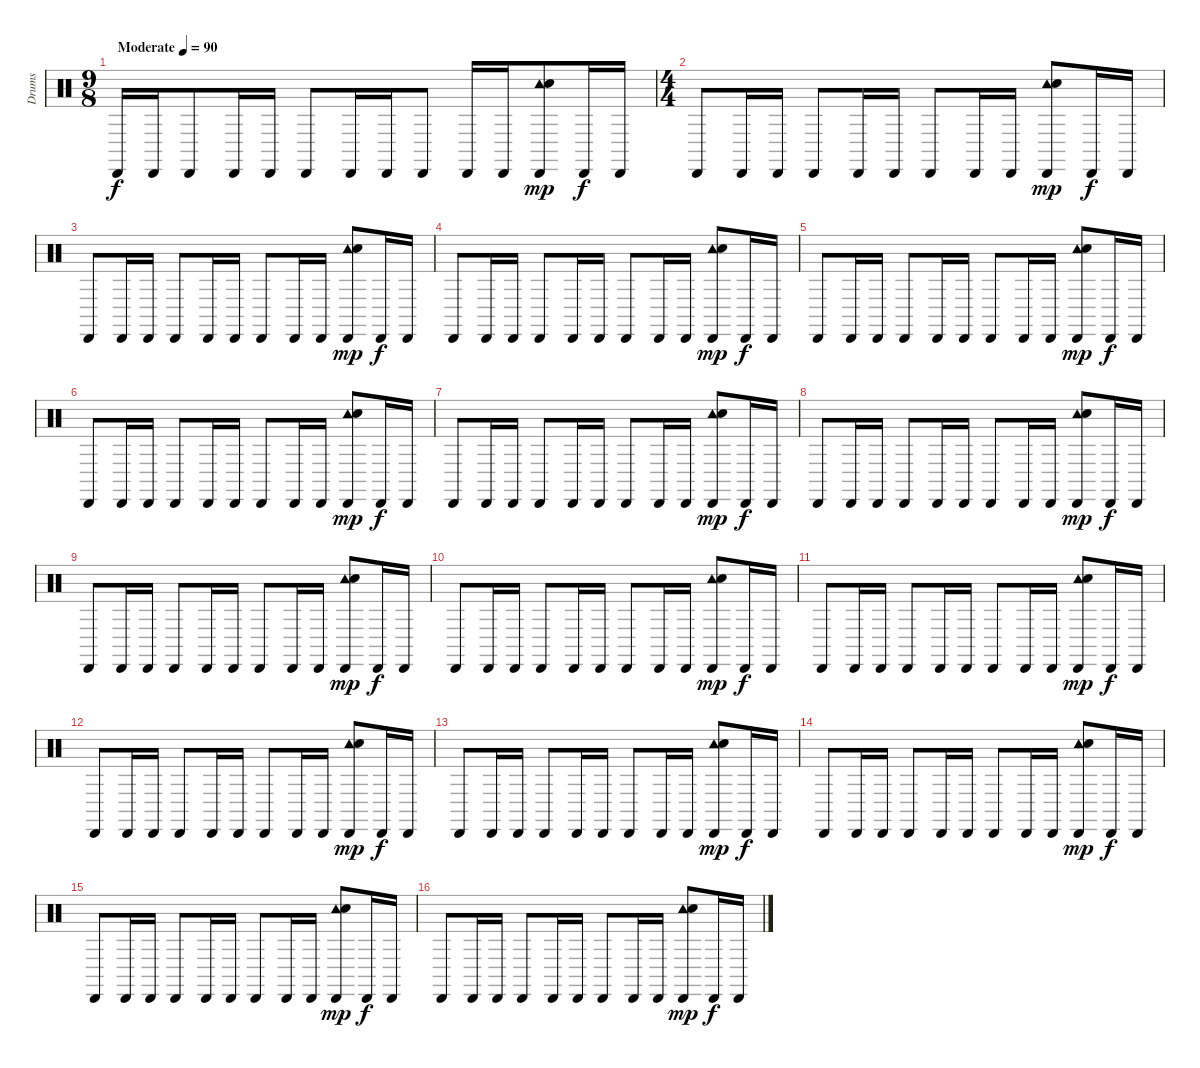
\track ("Drums" "Drums") {instrument percussion}
\staff {score}
\articulation defaults
\ts (9 8)
\tempo (90 "Moderate")
\clef neutral
\ks c "Cabasa (hit)".16{dy f} "Cabasa (hit)".16 "Cabasa (hit)".8 "Cabasa (hit)".16 "Cabasa (hit)".16 "Cabasa (hit)".8 "Cabasa (hit)".16 "Cabasa (hit)".16 "Cabasa (hit)".8 "Cabasa (hit)".16 "Cabasa (hit)".16
("Tambourine (hit)" "Cabasa (hit)" "Electric Snare (hit)").8{dy mp} "Cabasa (hit)".16{dy f} "Cabasa (hit)".16 |
\ts (4 4)
"Cabasa (hit)".8 "Cabasa (hit)".16 "Cabasa (hit)".16 "Cabasa (hit)".8 "Cabasa (hit)".16 "Cabasa (hit)".16 "Cabasa (hit)".8 "Cabasa (hit)".16 "Cabasa (hit)".16 ("Tambourine (hit)" "Cabasa (hit)" "Electric Snare (hit)").8{dy mp} "Cabasa (hit)".16{dy f} "Cabasa (hit)".16 |
"Cabasa (hit)".8 "Cabasa (hit)".16 "Cabasa (hit)".16 "Cabasa (hit)".8 "Cabasa (hit)".16 "Cabasa (hit)".16 "Cabasa (hit)".8 "Cabasa (hit)".16 "Cabasa (hit)".16 ("Tambourine (hit)" "Cabasa (hit)" "Electric Snare (hit)").8{dy mp} "Cabasa (hit)".16{dy f} "Cabasa (hit)".16 |
"Cabasa (hit)".8 "Cabasa (hit)".16 "Cabasa (hit)".16 "Cabasa (hit)".8 "Cabasa (hit)".16 "Cabasa (hit)".16 "Cabasa (hit)".8 "Cabasa (hit)".16 "Cabasa (hit)".16 ("Tambourine (hit)" "Cabasa (hit)" "Electric Snare (hit)").8{dy mp} "Cabasa (hit)".16{dy f} "Cabasa (hit)".16 |
"Cabasa (hit)".8 "Cabasa (hit)".16 "Cabasa (hit)".16 "Cabasa (hit)".8 "Cabasa (hit)".16 "Cabasa (hit)".16 "Cabasa (hit)".8 "Cabasa (hit)".16 "Cabasa (hit)".16 ("Tambourine (hit)" "Cabasa (hit)" "Electric Snare (hit)").8{dy mp} "Cabasa (hit)".16{dy f} "Cabasa (hit)".16 |
"Cabasa (hit)".8 "Cabasa (hit)".16 "Cabasa (hit)".16 "Cabasa (hit)".8 "Cabasa (hit)".16 "Cabasa (hit)".16 "Cabasa (hit)".8 "Cabasa (hit)".16 "Cabasa (hit)".16 ("Tambourine (hit)" "Cabasa (hit)" "Electric Snare (hit)").8{dy mp} "Cabasa (hit)".16{dy f} "Cabasa (hit)".16 |
"Cabasa (hit)".8 "Cabasa (hit)".16 "Cabasa (hit)".16 "Cabasa (hit)".8 "Cabasa (hit)".16 "Cabasa (hit)".16 "Cabasa (hit)".8 "Cabasa (hit)".16 "Cabasa (hit)".16 ("Tambourine (hit)" "Cabasa (hit)" "Electric Snare (hit)").8{dy mp} "Cabasa (hit)".16{dy f} "Cabasa (hit)".16 |
"Cabasa (hit)".8 "Cabasa (hit)".16 "Cabasa (hit)".16 "Cabasa (hit)".8 "Cabasa (hit)".16 "Cabasa (hit)".16 "Cabasa (hit)".8 "Cabasa (hit)".16 "Cabasa (hit)".16 ("Tambourine (hit)" "Cabasa (hit)" "Electric Snare (hit)").8{dy mp} "Cabasa (hit)".16{dy f} "Cabasa (hit)".16 |
"Cabasa (hit)".8 "Cabasa (hit)".16 "Cabasa (hit)".16 "Cabasa (hit)".8 "Cabasa (hit)".16 "Cabasa (hit)".16 "Cabasa (hit)".8 "Cabasa (hit)".16 "Cabasa (hit)".16 ("Tambourine (hit)" "Cabasa (hit)" "Electric Snare (hit)").8{dy mp} "Cabasa (hit)".16{dy f} "Cabasa (hit)".16 |
"Cabasa (hit)".8 "Cabasa (hit)".16 "Cabasa (hit)".16 "Cabasa (hit)".8 "Cabasa (hit)".16 "Cabasa (hit)".16 "Cabasa (hit)".8 "Cabasa (hit)".16 "Cabasa (hit)".16 ("Tambourine (hit)" "Cabasa (hit)" "Electric Snare (hit)").8{dy mp} "Cabasa (hit)".16{dy f} "Cabasa (hit)".16 |
"Cabasa (hit)".8 "Cabasa (hit)".16 "Cabasa (hit)".16 "Cabasa (hit)".8 "Cabasa (hit)".16 "Cabasa (hit)".16 "Cabasa (hit)".8 "Cabasa (hit)".16 "Cabasa (hit)".16 ("Tambourine (hit)" "Cabasa (hit)" "Electric Snare (hit)").8{dy mp} "Cabasa (hit)".16{dy f} "Cabasa (hit)".16 |
"Cabasa (hit)".8 "Cabasa (hit)".16 "Cabasa (hit)".16 "Cabasa (hit)".8 "Cabasa (hit)".16 "Cabasa (hit)".16 "Cabasa (hit)".8 "Cabasa (hit)".16 "Cabasa (hit)".16 ("Tambourine (hit)" "Cabasa (hit)" "Electric Snare (hit)").8{dy mp} "Cabasa (hit)".16{dy f} "Cabasa (hit)".16 |
"Cabasa (hit)".8 "Cabasa (hit)".16 "Cabasa (hit)".16 "Cabasa (hit)".8 "Cabasa (hit)".16 "Cabasa (hit)".16 "Cabasa (hit)".8 "Cabasa (hit)".16 "Cabasa (hit)".16 ("Tambourine (hit)" "Cabasa (hit)" "Electric Snare (hit)").8{dy mp} "Cabasa (hit)".16{dy f} "Cabasa (hit)".16 |
"Cabasa (hit)".8 "Cabasa (hit)".16 "Cabasa (hit)".16 "Cabasa (hit)".8 "Cabasa (hit)".16 "Cabasa (hit)".16 "Cabasa (hit)".8 "Cabasa (hit)".16 "Cabasa (hit)".16 ("Tambourine (hit)" "Cabasa (hit)" "Electric Snare (hit)").8{dy mp} "Cabasa (hit)".16{dy f} "Cabasa (hit)".16 |
"Cabasa (hit)".8 "Cabasa (hit)".16 "Cabasa (hit)".16 "Cabasa (hit)".8 "Cabasa (hit)".16 "Cabasa (hit)".16 "Cabasa (hit)".8 "Cabasa (hit)".16 "Cabasa (hit)".16 ("Tambourine (hit)" "Cabasa (hit)" "Electric Snare (hit)").8{dy mp} "Cabasa (hit)".16{dy f} "Cabasa (hit)".16 |
"Cabasa (hit)".8 "Cabasa (hit)".16 "Cabasa (hit)".16 "Cabasa (hit)".8 "Cabasa (hit)".16 "Cabasa (hit)".16 "Cabasa (hit)".8 "Cabasa (hit)".16 "Cabasa (hit)".16 ("Tambourine (hit)" "Cabasa (hit)" "Electric Snare (hit)").8{dy mp} "Cabasa (hit)".16{dy f} "Cabasa (hit)".16
